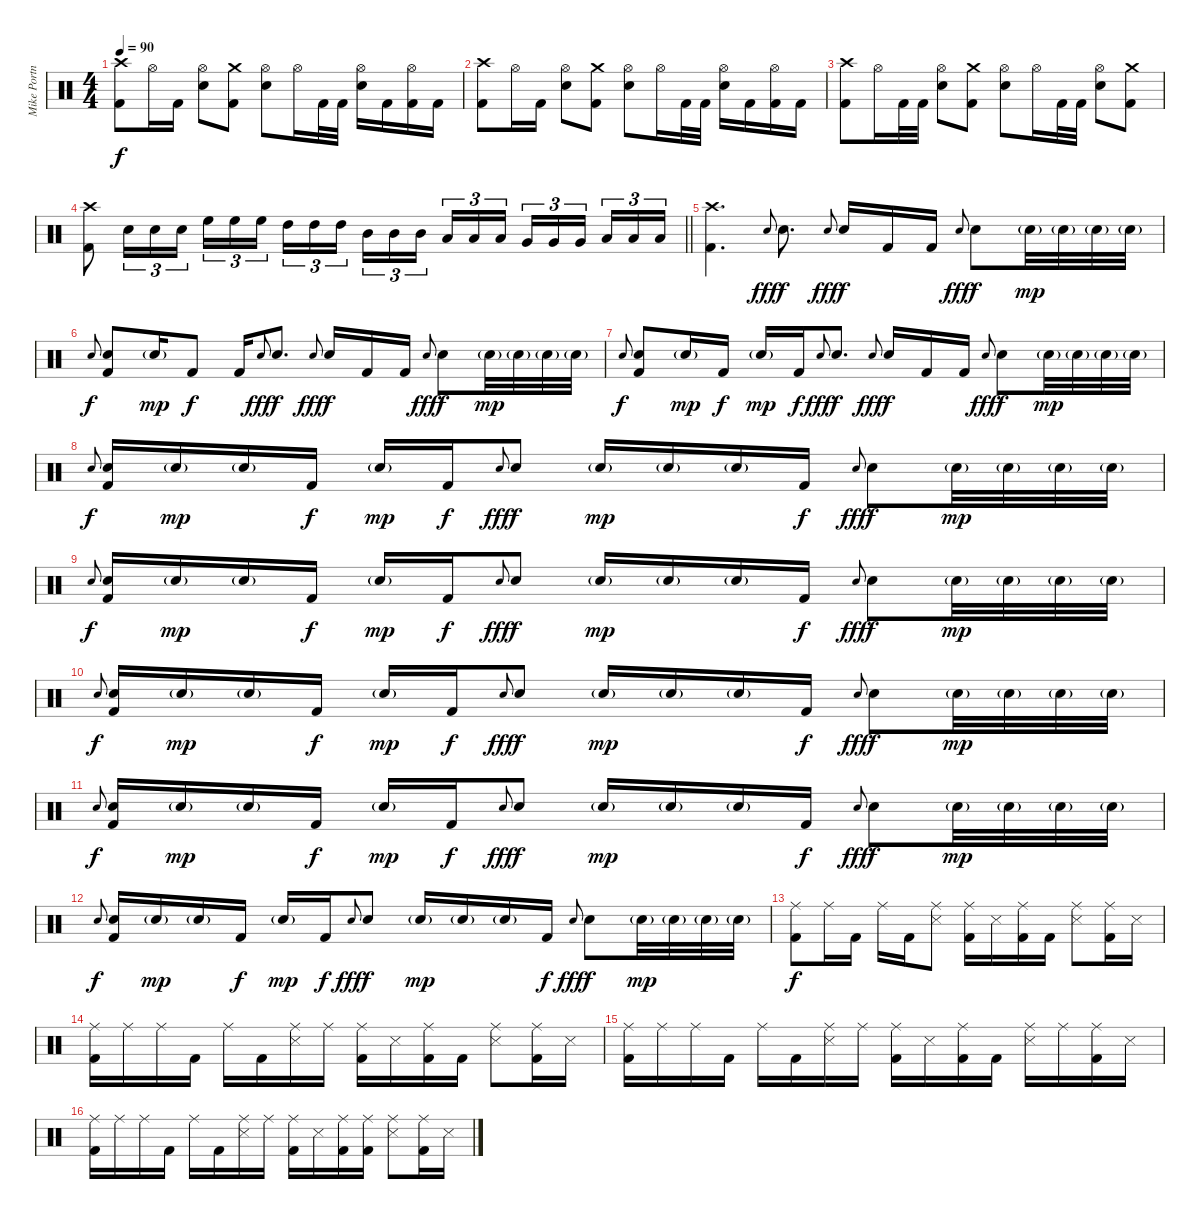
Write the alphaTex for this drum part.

\track ("Mike Portnoy" "Mike Portn") {instrument percussion}
\staff {score}
\articulation defaults
\ts (4 4)
\tempo 90
\clef neutral
\ks c
("Crash high (hit)" "Kick (hit) 2").8{dy f} "Hi-Hat (open)".16 "Kick (hit) 2".16 ("Hi-Hat (open)" "Snare (hit) 2").8 ("Crash medium (hit)" "Kick (hit) 2").8 ("Hi-Hat (open)" "Snare (hit) 2").8 "Hi-Hat (open)".16 "Kick (hit) 2".32 "Kick (hit) 2".32 ("Hi-Hat (open)" "Snare (hit) 2").16 "Kick (hit) 2".16 ("Hi-Hat (open)" "Kick (hit) 2").16 "Kick (hit) 2".16 |
("Crash high (hit)" "Kick (hit) 2").8 "Hi-Hat (open)".16 "Kick (hit) 2".16 ("Hi-Hat (open)" "Snare (hit) 2").8 ("Crash medium (hit)" "Kick (hit) 2").8 ("Hi-Hat (open)" "Snare (hit) 2").8 "Hi-Hat (open)".16 "Kick (hit) 2".32 "Kick (hit) 2".32 ("Hi-Hat (open)" "Snare (hit) 2").16 "Kick (hit) 2".16 ("Hi-Hat (open)" "Kick (hit) 2").16 "Kick (hit) 2".16 |
("Crash high (hit)" "Kick (hit) 2").8 "Hi-Hat (open)".16 "Kick (hit) 2".32 "Kick (hit) 2".32 ("Hi-Hat (open)" "Snare (hit) 2").8 ("Crash medium (hit)" "Kick (hit) 2").8 ("Hi-Hat (open)" "Snare (hit) 2").8 "Hi-Hat (open)".16 "Kick (hit) 2".32 "Kick (hit) 2".32 ("Hi-Hat (open)" "Snare (hit) 2").8 ("Crash medium (hit)" "Kick (hit) 2").8 |
\barLineRight lightlight
("Crash high (hit)" "Kick (hit) 2").8 "Snare (hit) 2".16{tu (3 2)} "Snare (hit) 2".16{tu (3 2)} "Snare (hit) 2".16{tu (3 2)} "High Floor Tom (hit)".16{tu (3 2)} "High Floor Tom (hit)".16{tu (3 2)} "High Floor Tom (hit)".16{tu (3 2) beam splitsecondary} "High Tom (hit)".16{tu (3 2)} "High Tom (hit)".16{tu (3 2)} "High Tom (hit)".16{tu (3 2)} "Mid Tom (hit)".16{tu (3 2)} "Mid Tom (hit)".16{tu (3 2)} "Mid Tom (hit)".16{tu (3 2) beam splitsecondary} "Low Tom (hit)".16{tu (3 2)} "Low Tom (hit)".16{tu (3 2)} "Low Tom (hit)".16{tu (3 2)} "Very Low Tom (hit)".16{tu (3 2)} "Very Low Tom (hit)".16{tu (3 2)} "Very Low Tom (hit)".16{tu (3 2) beam splitsecondary} "Low Floor Tom (hit)".16{tu (3 2)} "Low Floor Tom (hit)".16{tu (3 2)} "Low Floor Tom (hit)".16{tu (3 2)} |
("Crash high (hit)" "Kick (hit) 2").4{d} "Snare (hit) 2".8{gr onbeat dy fff} "Snare (hit) 2".8{d dy f} "Snare (hit) 2".8{gr onbeat dy fff} "Snare (hit) 2".16{dy f} "Kick (hit) 2".16 "Kick (hit) 2".16 "Snare (hit) 2".8{gr onbeat dy fff} "Snare (hit) 2".8{dy f} "Snare (hit) 2"{g}.32{dy mp} "Snare (hit) 2"{g}.32 "Snare (hit) 2"{g}.32 "Snare (hit) 2"{g}.32 |
"Snare (hit) 2".8{gr onbeat dy f} ("Snare (hit) 2" "Kick (hit) 2").8 "Snare (hit) 2"{g}.16{dy mp} "Kick (hit) 2".8{dy f} "Kick (hit) 2".16 "Snare (hit) 2".8{gr onbeat dy fff} "Snare (hit) 2".8{d dy f} "Snare (hit) 2".8{gr onbeat dy fff} "Snare (hit) 2".16{dy f} "Kick (hit) 2".16 "Kick (hit) 2".16 "Snare (hit) 2".8{gr onbeat dy fff} "Snare (hit) 2".8{dy f} "Snare (hit) 2"{g}.32{dy mp} "Snare (hit) 2"{g}.32 "Snare (hit) 2"{g}.32 "Snare (hit) 2"{g}.32 |
"Snare (hit) 2".8{gr onbeat dy f} ("Snare (hit) 2" "Kick (hit) 2").8 "Snare (hit) 2"{g}.16{dy mp} "Kick (hit) 2".16{dy f} "Snare (hit) 2"{g}.16{dy mp} "Kick (hit) 2".16{dy f} "Snare (hit) 2".8{gr onbeat dy fff} "Snare (hit) 2".8{d dy f} "Snare (hit) 2".8{gr onbeat dy fff} "Snare (hit) 2".16{dy f} "Kick (hit) 2".16 "Kick (hit) 2".16 "Snare (hit) 2".8{gr onbeat dy fff} "Snare (hit) 2".8{dy f} "Snare (hit) 2"{g}.32{dy mp} "Snare (hit) 2"{g}.32 "Snare (hit) 2"{g}.32 "Snare (hit) 2"{g}.32 |
"Snare (hit) 2".8{gr onbeat dy f} ("Snare (hit) 2" "Kick (hit) 2").16 "Snare (hit) 2"{g}.16{dy mp} "Snare (hit) 2"{g}.16 "Kick (hit) 2".16{dy f} "Snare (hit) 2"{g}.16{dy mp} "Kick (hit) 2".16{dy f} "Snare (hit) 2".8{gr onbeat dy fff} "Snare (hit) 2".8{dy f} "Snare (hit) 2"{g}.16{dy mp} "Snare (hit) 2"{g}.16 "Snare (hit) 2"{g}.16 "Kick (hit) 2".16{dy f} "Snare (hit) 2".8{gr onbeat dy fff} "Snare (hit) 2".8{dy f} "Snare (hit) 2"{g}.32{dy mp} "Snare (hit) 2"{g}.32 "Snare (hit) 2"{g}.32 "Snare (hit) 2"{g}.32 |
"Snare (hit) 2".8{gr onbeat dy f} ("Snare (hit) 2" "Kick (hit) 2").16 "Snare (hit) 2"{g}.16{dy mp} "Snare (hit) 2"{g}.16 "Kick (hit) 2".16{dy f} "Snare (hit) 2"{g}.16{dy mp} "Kick (hit) 2".16{dy f} "Snare (hit) 2".8{gr onbeat dy fff} "Snare (hit) 2".8{dy f} "Snare (hit) 2"{g}.16{dy mp} "Snare (hit) 2"{g}.16 "Snare (hit) 2"{g}.16 "Kick (hit) 2".16{dy f} "Snare (hit) 2".8{gr onbeat dy fff} "Snare (hit) 2".8{dy f} "Snare (hit) 2"{g}.32{dy mp} "Snare (hit) 2"{g}.32 "Snare (hit) 2"{g}.32 "Snare (hit) 2"{g}.32 |
"Snare (hit) 2".8{gr onbeat dy f} ("Snare (hit) 2" "Kick (hit) 2").16 "Snare (hit) 2"{g}.16{dy mp} "Snare (hit) 2"{g}.16 "Kick (hit) 2".16{dy f} "Snare (hit) 2"{g}.16{dy mp} "Kick (hit) 2".16{dy f} "Snare (hit) 2".8{gr onbeat dy fff} "Snare (hit) 2".8{dy f} "Snare (hit) 2"{g}.16{dy mp} "Snare (hit) 2"{g}.16 "Snare (hit) 2"{g}.16 "Kick (hit) 2".16{dy f} "Snare (hit) 2".8{gr onbeat dy fff} "Snare (hit) 2".8{dy f} "Snare (hit) 2"{g}.32{dy mp} "Snare (hit) 2"{g}.32 "Snare (hit) 2"{g}.32 "Snare (hit) 2"{g}.32 |
"Snare (hit) 2".8{gr onbeat dy f} ("Snare (hit) 2" "Kick (hit) 2").16 "Snare (hit) 2"{g}.16{dy mp} "Snare (hit) 2"{g}.16 "Kick (hit) 2".16{dy f} "Snare (hit) 2"{g}.16{dy mp} "Kick (hit) 2".16{dy f} "Snare (hit) 2".8{gr onbeat dy fff} "Snare (hit) 2".8{dy f} "Snare (hit) 2"{g}.16{dy mp} "Snare (hit) 2"{g}.16 "Snare (hit) 2"{g}.16 "Kick (hit) 2".16{dy f} "Snare (hit) 2".8{gr onbeat dy fff} "Snare (hit) 2".8{dy f} "Snare (hit) 2"{g}.32{dy mp} "Snare (hit) 2"{g}.32 "Snare (hit) 2"{g}.32 "Snare (hit) 2"{g}.32 |
"Snare (hit) 2".8{gr onbeat dy f} ("Snare (hit) 2" "Kick (hit) 2").16 "Snare (hit) 2"{g}.16{dy mp} "Snare (hit) 2"{g}.16 "Kick (hit) 2".16{dy f} "Snare (hit) 2"{g}.16{dy mp} "Kick (hit) 2".16{dy f} "Snare (hit) 2".8{gr onbeat dy fff} "Snare (hit) 2".8{dy f} "Snare (hit) 2"{g}.16{dy mp} "Snare (hit) 2"{g}.16 "Snare (hit) 2"{g}.16 "Kick (hit) 2".16{dy f} "Snare (hit) 2".8{gr onbeat dy fff} "Snare (hit) 2".8{dy f} "Snare (hit) 2"{g}.32{dy mp} "Snare (hit) 2"{g}.32 "Snare (hit) 2"{g}.32 "Snare (hit) 2"{g}.32 |
("Ride (middle)" "Kick (hit) 2").8{dy f} "Ride (middle)".16 "Kick (hit) 2".16 "Ride (middle)".16 "Kick (hit) 2".16 ("Ride (middle)" "Snare (side stick) 3").8 ("Ride (middle)" "Kick (hit) 2").16 "Snare (side stick) 3".16 ("Ride (middle)" "Kick (hit) 2").16 "Kick (hit) 2".16 ("Ride (middle)" "Snare (side stick) 3").8 ("Ride (middle)" "Kick (hit) 2").16 "Snare (side stick) 3".16 |
("Ride (middle)" "Kick (hit) 2").16 "Ride (middle)".16 "Ride (middle)".16 "Kick (hit) 2".16 "Ride (middle)".16 "Kick (hit) 2".16 ("Ride (middle)" "Snare (side stick) 3").16 "Ride (middle)".16 ("Ride (middle)" "Kick (hit) 2").16 "Snare (side stick) 3".16 ("Ride (middle)" "Kick (hit) 2").16 "Kick (hit) 2".16 ("Ride (middle)" "Snare (side stick) 3").8 ("Ride (middle)" "Kick (hit) 2").16 "Snare (side stick) 3".16 |
("Ride (middle)" "Kick (hit) 2").16 "Ride (middle)".16 "Ride (middle)".16 "Kick (hit) 2".16 "Ride (middle)".16 "Kick (hit) 2".16 ("Ride (middle)" "Snare (side stick) 3").16 "Ride (middle)".16 ("Ride (middle)" "Kick (hit) 2").16 "Snare (side stick) 3".16 ("Ride (middle)" "Kick (hit) 2").16 "Kick (hit) 2".16 ("Ride (middle)" "Snare (side stick) 3").16 "Ride (middle)".16 ("Ride (middle)" "Kick (hit) 2").16 "Snare (side stick) 3".16 |
("Ride (middle)" "Kick (hit) 2").16 "Ride (middle)".16 "Ride (middle)".16 "Kick (hit) 2".16 "Ride (middle)".16 "Kick (hit) 2".16 ("Ride (middle)" "Snare (side stick) 3").16 "Ride (middle)".16 ("Ride (middle)" "Kick (hit) 2").16 "Snare (side stick) 3".16 ("Ride (middle)" "Kick (hit) 2").16 ("Ride (middle)" "Kick (hit) 2").16 ("Ride (middle)" "Snare (side stick) 3").8 ("Ride (middle)" "Kick (hit) 2").16 "Snare (side stick) 3".16
